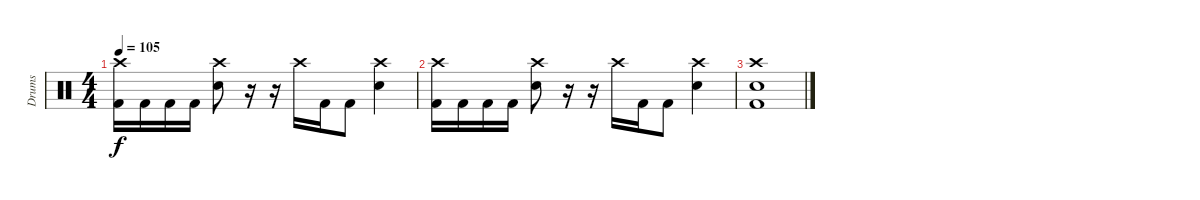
\track ("Drums" "Drums") {instrument percussion}
\staff {score}
\articulation defaults
\ts (4 4)
\tempo 105
\clef neutral
\ks c
("Crash high (hit)" "Kick (hit) 2").16{dy f} "Kick (hit) 2".16 "Kick (hit) 2".16 "Kick (hit) 2".16 ("Crash high (hit)" "Electric Snare (hit)").8 r.16 r.16 "Crash high (hit)".16 "Kick (hit) 2".16 "Kick (hit) 2".8 ("Crash high (hit)" "Electric Snare (hit)").4 |
("Crash high (hit)" "Kick (hit) 2").16 "Kick (hit) 2".16 "Kick (hit) 2".16 "Kick (hit) 2".16 ("Crash high (hit)" "Electric Snare (hit)").8 r.16 r.16 "Crash high (hit)".16 "Kick (hit) 2".16 "Kick (hit) 2".8 ("Crash high (hit)" "Electric Snare (hit)").4 |
("Crash high (hit)" "Electric Snare (hit)" "Kick (hit) 2").1
